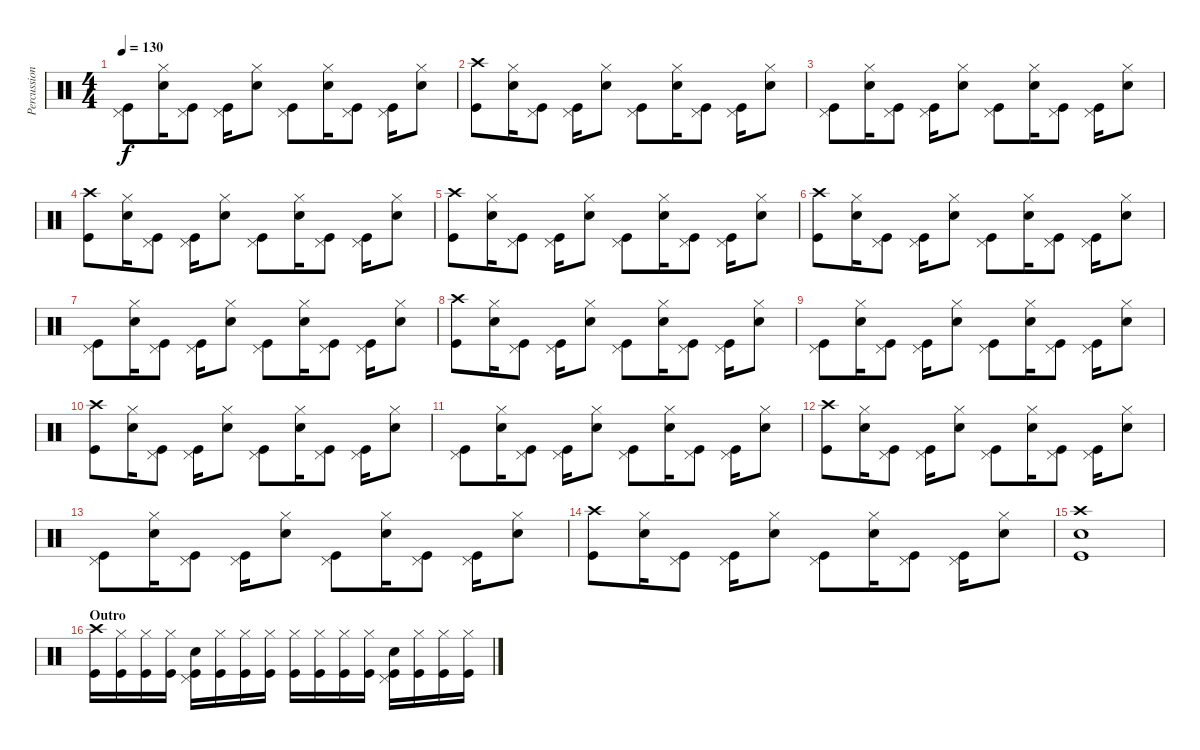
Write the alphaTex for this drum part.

\track ("Percussion" "Percussion") {instrument percussion}
\staff {score}
\articulation defaults
\ts (4 4)
\tempo 130
\clef neutral
\ks c
("Pedal Hi-Hat (hit)" "Kick (hit)").8{dy f} ("Hi-Hat (closed)" "Snare (hit) 2").16 ("Pedal Hi-Hat (hit)" "Kick (hit)").8 ("Pedal Hi-Hat (hit)" "Kick (hit)").16 ("Hi-Hat (closed)" "Snare (hit) 2").8 ("Pedal Hi-Hat (hit)" "Kick (hit)").8 ("Hi-Hat (closed)" "Snare (hit) 2").16 ("Pedal Hi-Hat (hit)" "Kick (hit)").8 ("Pedal Hi-Hat (hit)" "Kick (hit)").16 ("Hi-Hat (closed)" "Snare (hit) 2").8 |
("Crash high (hit)" "Kick (hit)").8 ("Hi-Hat (closed)" "Snare (hit) 2").16 ("Pedal Hi-Hat (hit)" "Kick (hit)").8 ("Pedal Hi-Hat (hit)" "Kick (hit)").16 ("Hi-Hat (closed)" "Snare (hit) 2").8 ("Pedal Hi-Hat (hit)" "Kick (hit)").8 ("Hi-Hat (closed)" "Snare (hit) 2").16 ("Pedal Hi-Hat (hit)" "Kick (hit)").8 ("Pedal Hi-Hat (hit)" "Kick (hit)").16 ("Hi-Hat (closed)" "Snare (hit) 2").8 |
("Pedal Hi-Hat (hit)" "Kick (hit)").8 ("Hi-Hat (closed)" "Snare (hit) 2").16 ("Pedal Hi-Hat (hit)" "Kick (hit)").8 ("Pedal Hi-Hat (hit)" "Kick (hit)").16 ("Hi-Hat (closed)" "Snare (hit) 2").8 ("Pedal Hi-Hat (hit)" "Kick (hit)").8 ("Hi-Hat (closed)" "Snare (hit) 2").16 ("Pedal Hi-Hat (hit)" "Kick (hit)").8 ("Pedal Hi-Hat (hit)" "Kick (hit)").16 ("Hi-Hat (closed)" "Snare (hit) 2").8 |
("Crash high (hit)" "Kick (hit)").8 ("Hi-Hat (closed)" "Snare (hit) 2").16 ("Pedal Hi-Hat (hit)" "Kick (hit)").8 ("Pedal Hi-Hat (hit)" "Kick (hit)").16 ("Hi-Hat (closed)" "Snare (hit) 2").8 ("Pedal Hi-Hat (hit)" "Kick (hit)").8 ("Hi-Hat (closed)" "Snare (hit) 2").16 ("Pedal Hi-Hat (hit)" "Kick (hit)").8 ("Pedal Hi-Hat (hit)" "Kick (hit)").16 ("Hi-Hat (closed)" "Snare (hit) 2").8 |
("Crash high (hit)" "Kick (hit)").8 ("Hi-Hat (closed)" "Snare (hit) 2").16 ("Pedal Hi-Hat (hit)" "Kick (hit)").8 ("Pedal Hi-Hat (hit)" "Kick (hit)").16 ("Hi-Hat (closed)" "Snare (hit) 2").8 ("Pedal Hi-Hat (hit)" "Kick (hit)").8 ("Hi-Hat (closed)" "Snare (hit) 2").16 ("Pedal Hi-Hat (hit)" "Kick (hit)").8 ("Pedal Hi-Hat (hit)" "Kick (hit)").16 ("Hi-Hat (closed)" "Snare (hit) 2").8 |
("Crash high (hit)" "Kick (hit)").8 ("Hi-Hat (closed)" "Snare (hit) 2").16 ("Pedal Hi-Hat (hit)" "Kick (hit)").8 ("Pedal Hi-Hat (hit)" "Kick (hit)").16 ("Hi-Hat (closed)" "Snare (hit) 2").8 ("Pedal Hi-Hat (hit)" "Kick (hit)").8 ("Hi-Hat (closed)" "Snare (hit) 2").16 ("Pedal Hi-Hat (hit)" "Kick (hit)").8 ("Pedal Hi-Hat (hit)" "Kick (hit)").16 ("Hi-Hat (closed)" "Snare (hit) 2").8 |
("Pedal Hi-Hat (hit)" "Kick (hit)").8 ("Hi-Hat (closed)" "Snare (hit) 2").16 ("Pedal Hi-Hat (hit)" "Kick (hit)").8 ("Pedal Hi-Hat (hit)" "Kick (hit)").16 ("Hi-Hat (closed)" "Snare (hit) 2").8 ("Pedal Hi-Hat (hit)" "Kick (hit)").8 ("Hi-Hat (closed)" "Snare (hit) 2").16 ("Pedal Hi-Hat (hit)" "Kick (hit)").8 ("Pedal Hi-Hat (hit)" "Kick (hit)").16 ("Hi-Hat (closed)" "Snare (hit) 2").8 |
("Crash high (hit)" "Kick (hit)").8 ("Hi-Hat (closed)" "Snare (hit) 2").16 ("Pedal Hi-Hat (hit)" "Kick (hit)").8 ("Pedal Hi-Hat (hit)" "Kick (hit)").16 ("Hi-Hat (closed)" "Snare (hit) 2").8 ("Pedal Hi-Hat (hit)" "Kick (hit)").8 ("Hi-Hat (closed)" "Snare (hit) 2").16 ("Pedal Hi-Hat (hit)" "Kick (hit)").8 ("Pedal Hi-Hat (hit)" "Kick (hit)").16 ("Hi-Hat (closed)" "Snare (hit) 2").8 |
("Pedal Hi-Hat (hit)" "Kick (hit)").8 ("Hi-Hat (closed)" "Snare (hit) 2").16 ("Pedal Hi-Hat (hit)" "Kick (hit)").8 ("Pedal Hi-Hat (hit)" "Kick (hit)").16 ("Hi-Hat (closed)" "Snare (hit) 2").8 ("Pedal Hi-Hat (hit)" "Kick (hit)").8 ("Hi-Hat (closed)" "Snare (hit) 2").16 ("Pedal Hi-Hat (hit)" "Kick (hit)").8 ("Pedal Hi-Hat (hit)" "Kick (hit)").16 ("Hi-Hat (closed)" "Snare (hit) 2").8 |
("Crash high (hit)" "Kick (hit)").8 ("Hi-Hat (closed)" "Snare (hit) 2").16 ("Pedal Hi-Hat (hit)" "Kick (hit)").8 ("Pedal Hi-Hat (hit)" "Kick (hit)").16 ("Hi-Hat (closed)" "Snare (hit) 2").8 ("Pedal Hi-Hat (hit)" "Kick (hit)").8 ("Hi-Hat (closed)" "Snare (hit) 2").16 ("Pedal Hi-Hat (hit)" "Kick (hit)").8 ("Pedal Hi-Hat (hit)" "Kick (hit)").16 ("Hi-Hat (closed)" "Snare (hit) 2").8 |
("Pedal Hi-Hat (hit)" "Kick (hit)").8 ("Hi-Hat (closed)" "Snare (hit) 2").16 ("Pedal Hi-Hat (hit)" "Kick (hit)").8 ("Pedal Hi-Hat (hit)" "Kick (hit)").16 ("Hi-Hat (closed)" "Snare (hit) 2").8 ("Pedal Hi-Hat (hit)" "Kick (hit)").8 ("Hi-Hat (closed)" "Snare (hit) 2").16 ("Pedal Hi-Hat (hit)" "Kick (hit)").8 ("Pedal Hi-Hat (hit)" "Kick (hit)").16 ("Hi-Hat (closed)" "Snare (hit) 2").8 |
("Crash high (hit)" "Kick (hit)").8 ("Hi-Hat (closed)" "Snare (hit) 2").16 ("Pedal Hi-Hat (hit)" "Kick (hit)").8 ("Pedal Hi-Hat (hit)" "Kick (hit)").16 ("Hi-Hat (closed)" "Snare (hit) 2").8 ("Pedal Hi-Hat (hit)" "Kick (hit)").8 ("Hi-Hat (closed)" "Snare (hit) 2").16 ("Pedal Hi-Hat (hit)" "Kick (hit)").8 ("Pedal Hi-Hat (hit)" "Kick (hit)").16 ("Hi-Hat (closed)" "Snare (hit) 2").8 |
("Pedal Hi-Hat (hit)" "Kick (hit)").8 ("Hi-Hat (closed)" "Snare (hit) 2").16 ("Pedal Hi-Hat (hit)" "Kick (hit)").8 ("Pedal Hi-Hat (hit)" "Kick (hit)").16 ("Hi-Hat (closed)" "Snare (hit) 2").8 ("Pedal Hi-Hat (hit)" "Kick (hit)").8 ("Hi-Hat (closed)" "Snare (hit) 2").16 ("Pedal Hi-Hat (hit)" "Kick (hit)").8 ("Pedal Hi-Hat (hit)" "Kick (hit)").16 ("Hi-Hat (closed)" "Snare (hit) 2").8 |
("Crash high (hit)" "Kick (hit)").8 ("Hi-Hat (closed)" "Snare (hit) 2").16 ("Pedal Hi-Hat (hit)" "Kick (hit)").8 ("Pedal Hi-Hat (hit)" "Kick (hit)").16 ("Hi-Hat (closed)" "Snare (hit) 2").8 ("Pedal Hi-Hat (hit)" "Kick (hit)").8 ("Hi-Hat (closed)" "Snare (hit) 2").16 ("Pedal Hi-Hat (hit)" "Kick (hit)").8 ("Pedal Hi-Hat (hit)" "Kick (hit)").16 ("Hi-Hat (closed)" "Snare (hit) 2").8 |
("Crash high (hit)" "Snare (hit) 2" "Kick (hit)").1 |
\section ("" "Outro")
("Crash high (hit)" "Kick (hit)").16 ("Hi-Hat (closed)" "Kick (hit)").16 ("Hi-Hat (closed)" "Kick (hit)").16 ("Hi-Hat (closed)" "Kick (hit)").16 ("Pedal Hi-Hat (hit)" "Snare (hit) 2" "Kick (hit)").16 ("Hi-Hat (closed)" "Kick (hit)").16 ("Hi-Hat (closed)" "Kick (hit)").16 ("Hi-Hat (closed)" "Kick (hit)").16 ("Hi-Hat (closed)" "Kick (hit)").16 ("Hi-Hat (closed)" "Kick (hit)").16 ("Hi-Hat (closed)" "Kick (hit)").16 ("Hi-Hat (closed)" "Kick (hit)").16 ("Pedal Hi-Hat (hit)" "Snare (hit) 2" "Kick (hit)").16 ("Hi-Hat (closed)" "Kick (hit)").16 ("Hi-Hat (closed)" "Kick (hit)").16 ("Hi-Hat (closed)" "Kick (hit)").16
